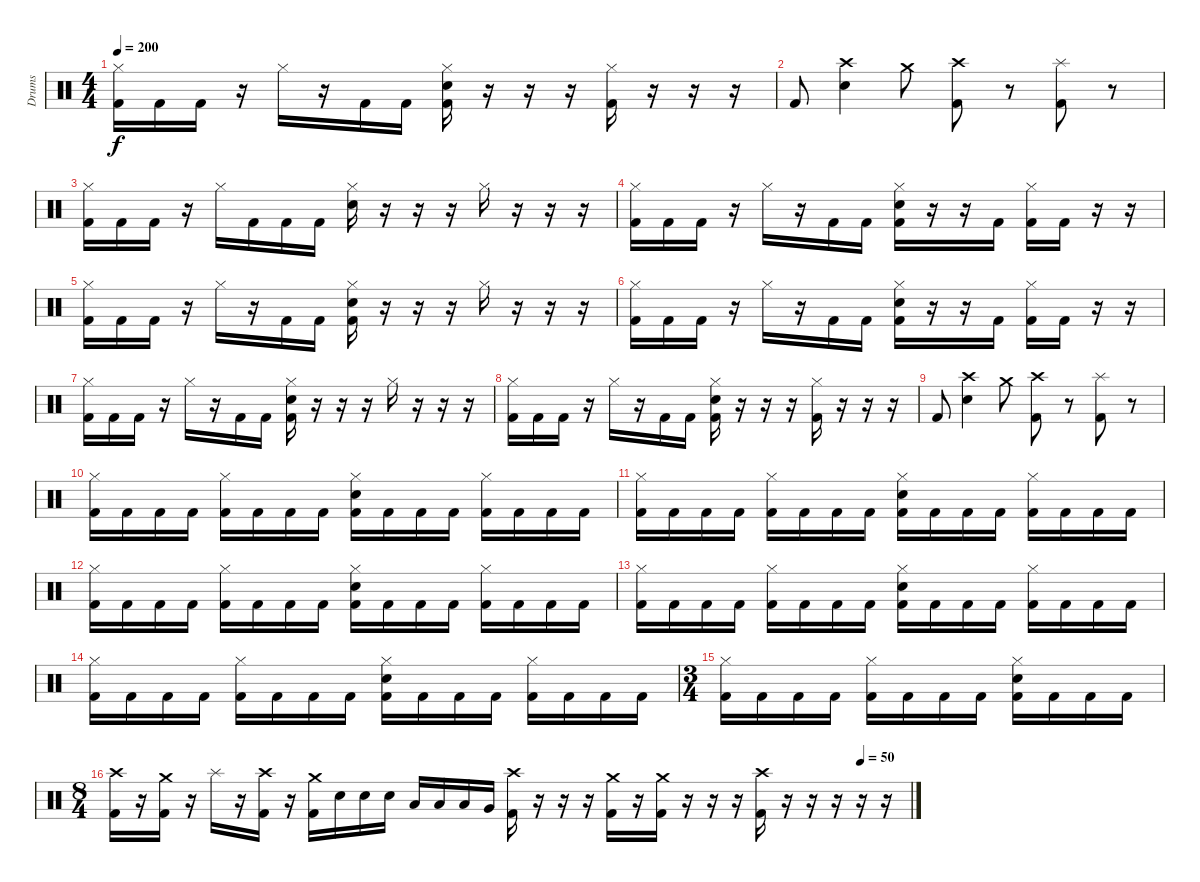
\track ("Drums" "Drums") {instrument percussion}
\staff {score}
\articulation defaults
\ts (4 4)
\tempo 200
\clef neutral
\ks c
("Hi-Hat (closed)" "Kick (hit) 2").16{dy f} "Kick (hit) 2".16 "Kick (hit) 2".16 r.16 "Hi-Hat (closed)".16 r.16 "Kick (hit) 2".16 "Kick (hit) 2".16 ("Hi-Hat (closed)" "Electric Snare (hit)" "Kick (hit) 2").16 r.16 r.16 r.16 ("Hi-Hat (closed)" "Kick (hit) 2").16 r.16 r.16 r.16 |
"Kick (hit) 2".8 ("Crash high (hit)" "Electric Snare (hit)").4 "Crash medium (hit)".8 ("Crash high (hit)" "Kick (hit) 2").8 r.8 ("Splash (hit)" "Kick (hit) 2").8 r.8 |
("Hi-Hat (closed)" "Kick (hit) 2").16 "Kick (hit) 2".16 "Kick (hit) 2".16 r.16 "Hi-Hat (closed)".16 "Kick (hit) 2".16 "Kick (hit) 2".16 "Kick (hit) 2".16 ("Hi-Hat (closed)" "Electric Snare (hit)").16 r.16 r.16 r.16 "Hi-Hat (closed)".16 r.16 r.16 r.16 |
("Hi-Hat (closed)" "Kick (hit) 2").16 "Kick (hit) 2".16 "Kick (hit) 2".16 r.16 "Hi-Hat (closed)".16 r.16 "Kick (hit) 2".16 "Kick (hit) 2".16 ("Hi-Hat (closed)" "Electric Snare (hit)" "Kick (hit) 2").16 r.16 r.16 "Kick (hit) 2".16 ("Hi-Hat (closed)" "Kick (hit) 2").16 "Kick (hit) 2".16 r.16 r.16 |
("Hi-Hat (closed)" "Kick (hit) 2").16 "Kick (hit) 2".16 "Kick (hit) 2".16 r.16 "Hi-Hat (closed)".16 r.16 "Kick (hit) 2".16 "Kick (hit) 2".16 ("Hi-Hat (closed)" "Electric Snare (hit)" "Kick (hit) 2").16 r.16 r.16 r.16 "Hi-Hat (closed)".16 r.16 r.16 r.16 |
("Hi-Hat (closed)" "Kick (hit) 2").16 "Kick (hit) 2".16 "Kick (hit) 2".16 r.16 "Hi-Hat (closed)".16 r.16 "Kick (hit) 2".16 "Kick (hit) 2".16 ("Hi-Hat (closed)" "Electric Snare (hit)" "Kick (hit) 2").16 r.16 r.16 "Kick (hit) 2".16 ("Hi-Hat (closed)" "Kick (hit) 2").16 "Kick (hit) 2".16 r.16 r.16 |
("Hi-Hat (closed)" "Kick (hit) 2").16 "Kick (hit) 2".16 "Kick (hit) 2".16 r.16 "Hi-Hat (closed)".16 r.16 "Kick (hit) 2".16 "Kick (hit) 2".16 ("Hi-Hat (closed)" "Electric Snare (hit)" "Kick (hit) 2").16 r.16 r.16 r.16 "Hi-Hat (closed)".16 r.16 r.16 r.16 |
("Hi-Hat (closed)" "Kick (hit) 2").16 "Kick (hit) 2".16 "Kick (hit) 2".16 r.16 "Hi-Hat (closed)".16 r.16 "Kick (hit) 2".16 "Kick (hit) 2".16 ("Hi-Hat (closed)" "Electric Snare (hit)" "Kick (hit) 2").16 r.16 r.16 r.16 ("Hi-Hat (closed)" "Kick (hit) 2").16 r.16 r.16 r.16 |
"Kick (hit) 2".8 ("Crash high (hit)" "Electric Snare (hit)").4 "Crash medium (hit)".8 ("Crash high (hit)" "Kick (hit) 2").8 r.8 ("Splash (hit)" "Kick (hit) 2").8 r.8 |
("Hi-Hat (closed)" "Kick (hit) 2").16 "Kick (hit) 2".16 "Kick (hit) 2".16 "Kick (hit) 2".16 ("Hi-Hat (closed)" "Kick (hit) 2").16 "Kick (hit) 2".16 "Kick (hit) 2".16 "Kick (hit) 2".16 ("Hi-Hat (closed)" "Electric Snare (hit)" "Kick (hit) 2").16 "Kick (hit) 2".16 "Kick (hit) 2".16 "Kick (hit) 2".16 ("Hi-Hat (closed)" "Kick (hit) 2").16 "Kick (hit) 2".16 "Kick (hit) 2".16 "Kick (hit) 2".16 |
("Hi-Hat (closed)" "Kick (hit) 2").16 "Kick (hit) 2".16 "Kick (hit) 2".16 "Kick (hit) 2".16 ("Hi-Hat (closed)" "Kick (hit) 2").16 "Kick (hit) 2".16 "Kick (hit) 2".16 "Kick (hit) 2".16 ("Hi-Hat (closed)" "Electric Snare (hit)" "Kick (hit) 2").16 "Kick (hit) 2".16 "Kick (hit) 2".16 "Kick (hit) 2".16 ("Hi-Hat (closed)" "Kick (hit) 2").16 "Kick (hit) 2".16 "Kick (hit) 2".16 "Kick (hit) 2".16 |
("Hi-Hat (closed)" "Kick (hit) 2").16 "Kick (hit) 2".16 "Kick (hit) 2".16 "Kick (hit) 2".16 ("Hi-Hat (closed)" "Kick (hit) 2").16 "Kick (hit) 2".16 "Kick (hit) 2".16 "Kick (hit) 2".16 ("Hi-Hat (closed)" "Electric Snare (hit)" "Kick (hit) 2").16 "Kick (hit) 2".16 "Kick (hit) 2".16 "Kick (hit) 2".16 ("Hi-Hat (closed)" "Kick (hit) 2").16 "Kick (hit) 2".16 "Kick (hit) 2".16 "Kick (hit) 2".16 |
("Hi-Hat (closed)" "Kick (hit) 2").16 "Kick (hit) 2".16 "Kick (hit) 2".16 "Kick (hit) 2".16 ("Hi-Hat (closed)" "Kick (hit) 2").16 "Kick (hit) 2".16 "Kick (hit) 2".16 "Kick (hit) 2".16 ("Hi-Hat (closed)" "Electric Snare (hit)" "Kick (hit) 2").16 "Kick (hit) 2".16 "Kick (hit) 2".16 "Kick (hit) 2".16 ("Hi-Hat (closed)" "Kick (hit) 2").16 "Kick (hit) 2".16 "Kick (hit) 2".16 "Kick (hit) 2".16 |
("Hi-Hat (closed)" "Kick (hit) 2").16 "Kick (hit) 2".16 "Kick (hit) 2".16 "Kick (hit) 2".16 ("Hi-Hat (closed)" "Kick (hit) 2").16 "Kick (hit) 2".16 "Kick (hit) 2".16 "Kick (hit) 2".16 ("Hi-Hat (closed)" "Electric Snare (hit)" "Kick (hit) 2").16 "Kick (hit) 2".16 "Kick (hit) 2".16 "Kick (hit) 2".16 ("Hi-Hat (closed)" "Kick (hit) 2").16 "Kick (hit) 2".16 "Kick (hit) 2".16 "Kick (hit) 2".16 |
\ts (3 4)
("Hi-Hat (closed)" "Kick (hit) 2").16 "Kick (hit) 2".16 "Kick (hit) 2".16 "Kick (hit) 2".16 ("Hi-Hat (closed)" "Kick (hit) 2").16 "Kick (hit) 2".16 "Kick (hit) 2".16 "Kick (hit) 2".16 ("Hi-Hat (closed)" "Electric Snare (hit)" "Kick (hit) 2").16 "Kick (hit) 2".16 "Kick (hit) 2".16 "Kick (hit) 2".16 |
\ts (8 4)
\tempo (50 0.9375)
("Crash high (hit)" "Kick (hit) 2").16 r.16 ("Crash medium (hit)" "Kick (hit) 2").16 r.16 "Splash (hit)".16 r.16 ("Crash high (hit)" "Kick (hit) 2").16 r.16 ("Crash medium (hit)" "Kick (hit) 2").16 "Electric Snare (hit)".16 "Electric Snare (hit)".16 "Electric Snare (hit)".16 "Low Tom (hit)".16 "Low Tom (hit)".16 "Low Tom (hit)".16 "Very Low Tom (hit)".16 ("Crash high (hit)" "Kick (hit) 2").16 r.16 r.16 r.16 ("Crash medium (hit)" "Kick (hit) 2").16 r.16 ("Crash medium (hit)" "Kick (hit) 2").16 r.16 r.16 r.16 ("Crash high (hit)" "Kick (hit) 2").16 r.16 r.16 r.16 r.16 r.16
